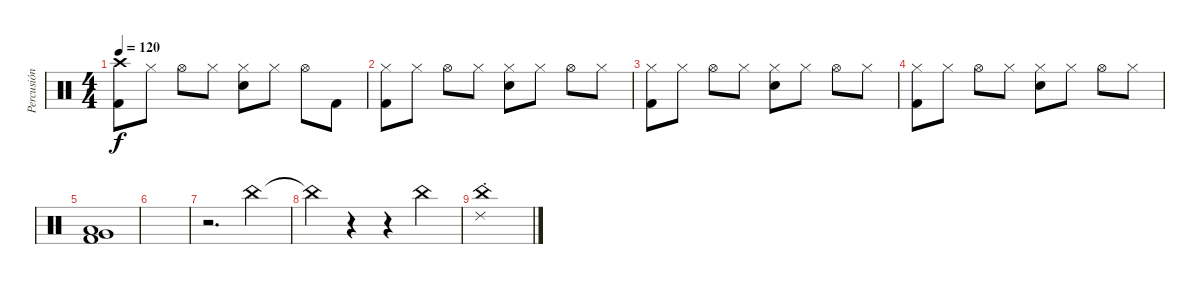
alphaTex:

\track ("Percusión" "Percusión") {instrument percussion}
\staff {score}
\articulation defaults
\ts (4 4)
\tempo 120
\clef neutral
\ks c
("Crash high (hit)" "Kick (hit) 2").8{dy f} "Hi-Hat (closed)".8 "Hi-Hat (open)".8 "Hi-Hat (closed)".8 ("Electric Snare (hit)" "Hi-Hat (closed)").8 "Hi-Hat (closed)".8 "Hi-Hat (open)".8 "Kick (hit) 2".8 |
("Kick (hit) 2" "Hi-Hat (closed)").8 "Hi-Hat (closed)".8 "Hi-Hat (open)".8 "Hi-Hat (closed)".8 ("Electric Snare (hit)" "Hi-Hat (closed)").8 "Hi-Hat (closed)".8 "Hi-Hat (open)".8 "Hi-Hat (closed)".8 |
("Kick (hit) 2" "Hi-Hat (closed)").8 "Hi-Hat (closed)".8 "Hi-Hat (open)".8 "Hi-Hat (closed)".8 ("Electric Snare (hit)" "Hi-Hat (closed)").8 "Hi-Hat (closed)".8 "Hi-Hat (open)".8 "Hi-Hat (closed)".8 |
("Kick (hit) 2" "Hi-Hat (closed)").8 "Hi-Hat (closed)".8 "Hi-Hat (open)".8 "Hi-Hat (closed)".8 ("Electric Snare (hit)" "Hi-Hat (closed)").8 "Hi-Hat (closed)".8 "Hi-Hat (open)".8 "Hi-Hat (closed)".8 |
("Very Low Tom (hit)" "Low Floor Tom (hit)" "Kick (hit) 2").1 |
|
r.2{d} "China (hit)".4 |
"China (hit)"{t}.4 r.4 r.4 "China (hit)".4 |
("Ride (choke) 2" "China (hit)").1
